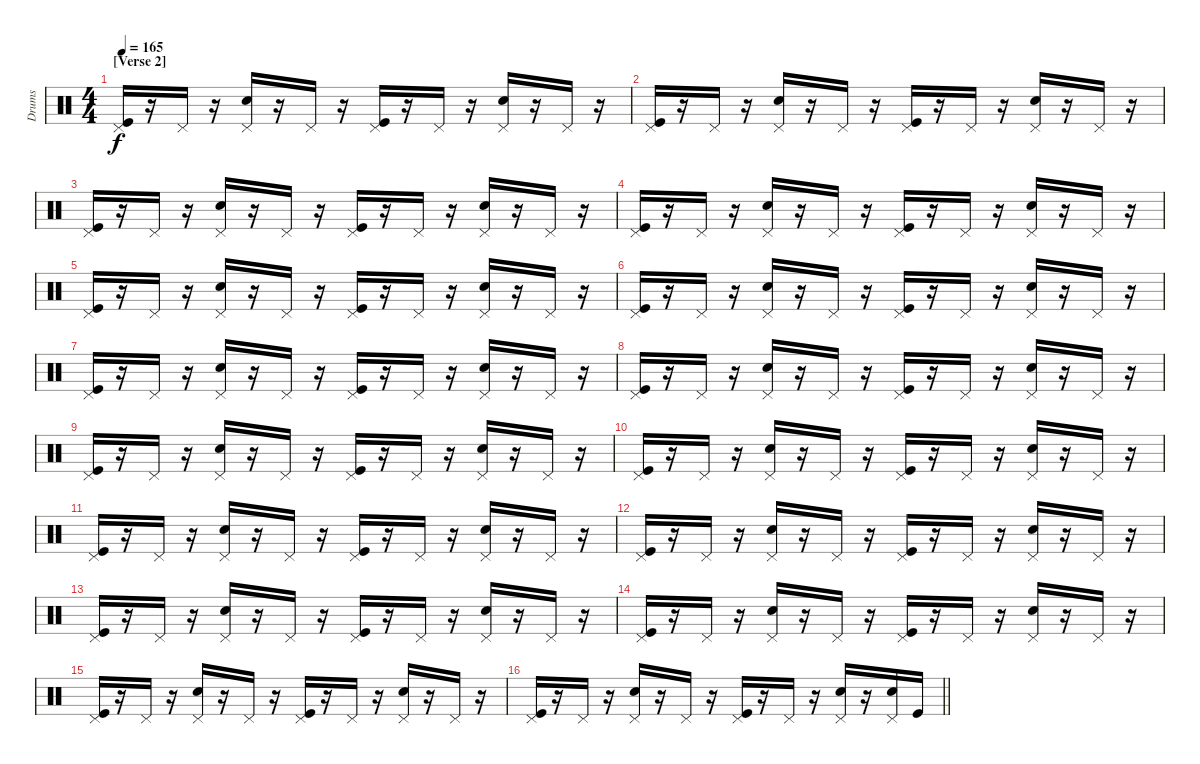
\track ("Drums" "Drums") {instrument percussion}
\staff {score}
\articulation defaults
\ts (4 4)
\section ("" "[Verse 2]")
\tempo 165
\clef neutral
\ks c
("Pedal Hi-Hat (hit)" "Kick (hit)").16{dy f} r.16 "Pedal Hi-Hat (hit)".16 r.16 ("Pedal Hi-Hat (hit)" "Snare (hit) 2").16 r.16 "Pedal Hi-Hat (hit)".16 r.16 ("Pedal Hi-Hat (hit)" "Kick (hit)").16 r.16 "Pedal Hi-Hat (hit)".16 r.16 ("Pedal Hi-Hat (hit)" "Snare (hit) 2").16 r.16 "Pedal Hi-Hat (hit)".16 r.16 |
("Pedal Hi-Hat (hit)" "Kick (hit)").16 r.16 "Pedal Hi-Hat (hit)".16 r.16 ("Pedal Hi-Hat (hit)" "Snare (hit) 2").16 r.16 "Pedal Hi-Hat (hit)".16 r.16 ("Pedal Hi-Hat (hit)" "Kick (hit)").16 r.16 "Pedal Hi-Hat (hit)".16 r.16 ("Pedal Hi-Hat (hit)" "Snare (hit) 2").16 r.16 "Pedal Hi-Hat (hit)".16 r.16 |
("Pedal Hi-Hat (hit)" "Kick (hit)").16 r.16 "Pedal Hi-Hat (hit)".16 r.16 ("Pedal Hi-Hat (hit)" "Snare (hit) 2").16 r.16 "Pedal Hi-Hat (hit)".16 r.16 ("Pedal Hi-Hat (hit)" "Kick (hit)").16 r.16 "Pedal Hi-Hat (hit)".16 r.16 ("Pedal Hi-Hat (hit)" "Snare (hit) 2").16 r.16 "Pedal Hi-Hat (hit)".16 r.16 |
("Pedal Hi-Hat (hit)" "Kick (hit)").16 r.16 "Pedal Hi-Hat (hit)".16 r.16 ("Pedal Hi-Hat (hit)" "Snare (hit) 2").16 r.16 "Pedal Hi-Hat (hit)".16 r.16 ("Pedal Hi-Hat (hit)" "Kick (hit)").16 r.16 "Pedal Hi-Hat (hit)".16 r.16 ("Pedal Hi-Hat (hit)" "Snare (hit) 2").16 r.16 "Pedal Hi-Hat (hit)".16 r.16 |
("Pedal Hi-Hat (hit)" "Kick (hit)").16 r.16 "Pedal Hi-Hat (hit)".16 r.16 ("Pedal Hi-Hat (hit)" "Snare (hit) 2").16 r.16 "Pedal Hi-Hat (hit)".16 r.16 ("Pedal Hi-Hat (hit)" "Kick (hit)").16 r.16 "Pedal Hi-Hat (hit)".16 r.16 ("Pedal Hi-Hat (hit)" "Snare (hit) 2").16 r.16 "Pedal Hi-Hat (hit)".16 r.16 |
("Pedal Hi-Hat (hit)" "Kick (hit)").16 r.16 "Pedal Hi-Hat (hit)".16 r.16 ("Pedal Hi-Hat (hit)" "Snare (hit) 2").16 r.16 "Pedal Hi-Hat (hit)".16 r.16 ("Pedal Hi-Hat (hit)" "Kick (hit)").16 r.16 "Pedal Hi-Hat (hit)".16 r.16 ("Pedal Hi-Hat (hit)" "Snare (hit) 2").16 r.16 "Pedal Hi-Hat (hit)".16 r.16 |
("Pedal Hi-Hat (hit)" "Kick (hit)").16 r.16 "Pedal Hi-Hat (hit)".16 r.16 ("Pedal Hi-Hat (hit)" "Snare (hit) 2").16 r.16 "Pedal Hi-Hat (hit)".16 r.16 ("Pedal Hi-Hat (hit)" "Kick (hit)").16 r.16 "Pedal Hi-Hat (hit)".16 r.16 ("Pedal Hi-Hat (hit)" "Snare (hit) 2").16 r.16 "Pedal Hi-Hat (hit)".16 r.16 |
("Pedal Hi-Hat (hit)" "Kick (hit)").16 r.16 "Pedal Hi-Hat (hit)".16 r.16 ("Pedal Hi-Hat (hit)" "Snare (hit) 2").16 r.16 "Pedal Hi-Hat (hit)".16 r.16 ("Pedal Hi-Hat (hit)" "Kick (hit)").16 r.16 "Pedal Hi-Hat (hit)".16 r.16 ("Pedal Hi-Hat (hit)" "Snare (hit) 2").16 r.16 "Pedal Hi-Hat (hit)".16 r.16 |
("Pedal Hi-Hat (hit)" "Kick (hit)").16 r.16 "Pedal Hi-Hat (hit)".16 r.16 ("Pedal Hi-Hat (hit)" "Snare (hit) 2").16 r.16 "Pedal Hi-Hat (hit)".16 r.16 ("Pedal Hi-Hat (hit)" "Kick (hit)").16 r.16 "Pedal Hi-Hat (hit)".16 r.16 ("Pedal Hi-Hat (hit)" "Snare (hit) 2").16 r.16 "Pedal Hi-Hat (hit)".16 r.16 |
("Pedal Hi-Hat (hit)" "Kick (hit)").16 r.16 "Pedal Hi-Hat (hit)".16 r.16 ("Pedal Hi-Hat (hit)" "Snare (hit) 2").16 r.16 "Pedal Hi-Hat (hit)".16 r.16 ("Pedal Hi-Hat (hit)" "Kick (hit)").16 r.16 "Pedal Hi-Hat (hit)".16 r.16 ("Pedal Hi-Hat (hit)" "Snare (hit) 2").16 r.16 "Pedal Hi-Hat (hit)".16 r.16 |
("Pedal Hi-Hat (hit)" "Kick (hit)").16 r.16 "Pedal Hi-Hat (hit)".16 r.16 ("Pedal Hi-Hat (hit)" "Snare (hit) 2").16 r.16 "Pedal Hi-Hat (hit)".16 r.16 ("Pedal Hi-Hat (hit)" "Kick (hit)").16 r.16 "Pedal Hi-Hat (hit)".16 r.16 ("Pedal Hi-Hat (hit)" "Snare (hit) 2").16 r.16 "Pedal Hi-Hat (hit)".16 r.16 |
("Pedal Hi-Hat (hit)" "Kick (hit)").16 r.16 "Pedal Hi-Hat (hit)".16 r.16 ("Pedal Hi-Hat (hit)" "Snare (hit) 2").16 r.16 "Pedal Hi-Hat (hit)".16 r.16 ("Pedal Hi-Hat (hit)" "Kick (hit)").16 r.16 "Pedal Hi-Hat (hit)".16 r.16 ("Pedal Hi-Hat (hit)" "Snare (hit) 2").16 r.16 "Pedal Hi-Hat (hit)".16 r.16 |
("Pedal Hi-Hat (hit)" "Kick (hit)").16 r.16 "Pedal Hi-Hat (hit)".16 r.16 ("Pedal Hi-Hat (hit)" "Snare (hit) 2").16 r.16 "Pedal Hi-Hat (hit)".16 r.16 ("Pedal Hi-Hat (hit)" "Kick (hit)").16 r.16 "Pedal Hi-Hat (hit)".16 r.16 ("Pedal Hi-Hat (hit)" "Snare (hit) 2").16 r.16 "Pedal Hi-Hat (hit)".16 r.16 |
("Pedal Hi-Hat (hit)" "Kick (hit)").16 r.16 "Pedal Hi-Hat (hit)".16 r.16 ("Pedal Hi-Hat (hit)" "Snare (hit) 2").16 r.16 "Pedal Hi-Hat (hit)".16 r.16 ("Pedal Hi-Hat (hit)" "Kick (hit)").16 r.16 "Pedal Hi-Hat (hit)".16 r.16 ("Pedal Hi-Hat (hit)" "Snare (hit) 2").16 r.16 "Pedal Hi-Hat (hit)".16 r.16 |
("Pedal Hi-Hat (hit)" "Kick (hit)").16 r.16 "Pedal Hi-Hat (hit)".16 r.16 ("Pedal Hi-Hat (hit)" "Snare (hit) 2").16 r.16 "Pedal Hi-Hat (hit)".16 r.16 ("Pedal Hi-Hat (hit)" "Kick (hit)").16 r.16 "Pedal Hi-Hat (hit)".16 r.16 ("Pedal Hi-Hat (hit)" "Snare (hit) 2").16 r.16 "Pedal Hi-Hat (hit)".16 r.16 |
\barLineRight lightlight
("Pedal Hi-Hat (hit)" "Kick (hit)").16 r.16 "Pedal Hi-Hat (hit)".16 r.16 ("Pedal Hi-Hat (hit)" "Snare (hit) 2").16 r.16 "Pedal Hi-Hat (hit)".16 r.16 ("Pedal Hi-Hat (hit)" "Kick (hit)").16 r.16 "Pedal Hi-Hat (hit)".16 r.16 ("Pedal Hi-Hat (hit)" "Snare (hit) 2").16 r.16 ("Pedal Hi-Hat (hit)" "Snare (hit) 2").16 "Kick (hit)".16
